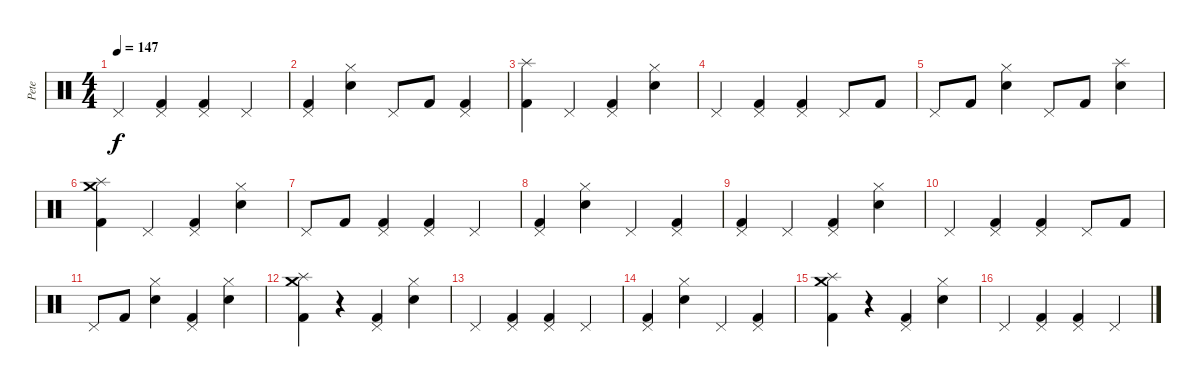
\track ("Pete" "Pete") {instrument percussion}
\staff {score}
\articulation defaults
\ts (4 4)
\tempo 147
\clef neutral
\ks c "Pedal Hi-Hat (hit)".4{dy f}
("Pedal Hi-Hat (hit)" "Kick (hit) 2").4 ("Pedal Hi-Hat (hit)" "Kick (hit) 2").4 "Pedal Hi-Hat (hit)".4 |
("Pedal Hi-Hat (hit)" "Kick (hit) 2").4 ("Hi-Hat (closed)" "Electric Snare (hit)").4 "Pedal Hi-Hat (hit)".8 "Kick (hit) 2".8 ("Pedal Hi-Hat (hit)" "Kick (hit) 2").4 |
("Splash (hit)" "Kick (hit) 2").4 "Pedal Hi-Hat (hit)".4 ("Pedal Hi-Hat (hit)" "Kick (hit) 2").4 ("Hi-Hat (closed)" "Electric Snare (hit)").4 |
"Pedal Hi-Hat (hit)".4 ("Pedal Hi-Hat (hit)" "Kick (hit) 2").4 ("Pedal Hi-Hat (hit)" "Kick (hit) 2").4 "Pedal Hi-Hat (hit)".8 "Kick (hit) 2".8 |
"Pedal Hi-Hat (hit)".8 "Kick (hit) 2".8 ("Hi-Hat (closed)" "Electric Snare (hit)").4 "Pedal Hi-Hat (hit)".8 "Kick (hit) 2".8 ("Splash (hit)" "Electric Snare (hit)").4 |
("Crash medium (hit)" "Splash (hit)" "Kick (hit) 2").4 "Pedal Hi-Hat (hit)".4 ("Pedal Hi-Hat (hit)" "Kick (hit) 2").4 ("Hi-Hat (closed)" "Electric Snare (hit)").4 |
"Pedal Hi-Hat (hit)".8 "Kick (hit) 2".8 ("Pedal Hi-Hat (hit)" "Kick (hit) 2").4 ("Pedal Hi-Hat (hit)" "Kick (hit) 2").4 "Pedal Hi-Hat (hit)".4 |
("Pedal Hi-Hat (hit)" "Kick (hit) 2").4 ("Hi-Hat (closed)" "Electric Snare (hit)").4 "Pedal Hi-Hat (hit)".4 ("Pedal Hi-Hat (hit)" "Kick (hit) 2").4 |
("Pedal Hi-Hat (hit)" "Kick (hit) 2").4 "Pedal Hi-Hat (hit)".4 ("Pedal Hi-Hat (hit)" "Kick (hit) 2").4 ("Hi-Hat (closed)" "Electric Snare (hit)").4 |
"Pedal Hi-Hat (hit)".4 ("Pedal Hi-Hat (hit)" "Kick (hit) 2").4 ("Pedal Hi-Hat (hit)" "Kick (hit) 2").4 "Pedal Hi-Hat (hit)".8 "Kick (hit) 2".8 |
"Pedal Hi-Hat (hit)".8 "Kick (hit) 2".8 ("Hi-Hat (closed)" "Electric Snare (hit)").4 ("Pedal Hi-Hat (hit)" "Kick (hit) 2").4 ("Hi-Hat (closed)" "Electric Snare (hit)").4 |
("Crash medium (hit)" "Splash (hit)" "Kick (hit) 2").4 r.4 ("Pedal Hi-Hat (hit)" "Kick (hit) 2").4 ("Hi-Hat (closed)" "Electric Snare (hit)").4 |
"Pedal Hi-Hat (hit)".4 ("Pedal Hi-Hat (hit)" "Kick (hit) 2").4 ("Pedal Hi-Hat (hit)" "Kick (hit) 2").4 "Pedal Hi-Hat (hit)".4 |
("Pedal Hi-Hat (hit)" "Kick (hit) 2").4 ("Hi-Hat (closed)" "Electric Snare (hit)").4 "Pedal Hi-Hat (hit)".4 ("Pedal Hi-Hat (hit)" "Kick (hit) 2").4 |
("Crash medium (hit)" "Splash (hit)" "Kick (hit) 2").4 r.4 ("Pedal Hi-Hat (hit)" "Kick (hit) 2").4 ("Hi-Hat (closed)" "Electric Snare (hit)").4 |
"Pedal Hi-Hat (hit)".4 ("Pedal Hi-Hat (hit)" "Kick (hit) 2").4 ("Pedal Hi-Hat (hit)" "Kick (hit) 2").4 "Pedal Hi-Hat (hit)".4
